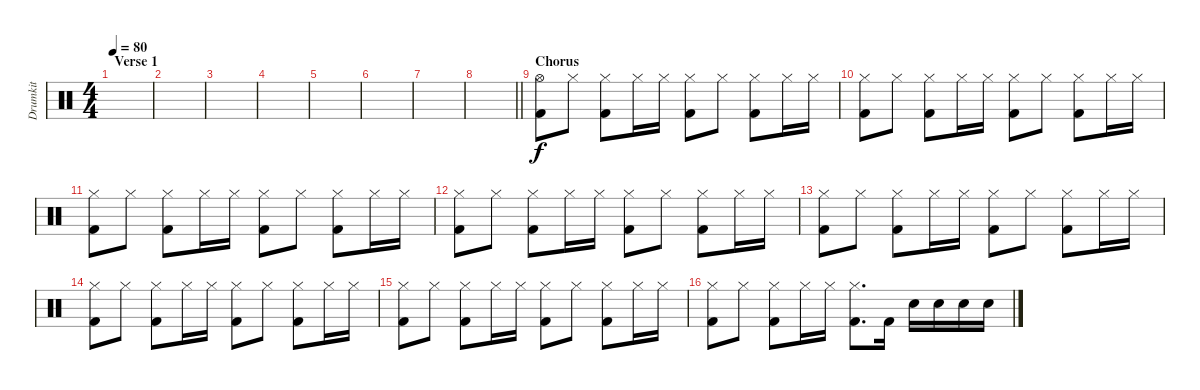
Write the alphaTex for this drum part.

\track ("Drumkit" "Drumkit") {instrument percussion}
\staff {score}
\articulation defaults
\ts (4 4)
\section ("" "Verse 1")
\tempo 80
\clef neutral
\ks c
|
|
|
|
|
|
|
\barLineRight lightlight
|
\section ("" "Chorus")
("Kick (hit) 2" "Hi-Hat (open)").8 "Hi-Hat (closed)".8 ("Kick (hit) 2" "Hi-Hat (closed)").8 "Hi-Hat (closed)".16 "Hi-Hat (closed)".16 ("Kick (hit) 2" "Hi-Hat (closed)").8 "Hi-Hat (closed)".8 ("Kick (hit) 2" "Hi-Hat (closed)").8 "Hi-Hat (closed)".16 "Hi-Hat (closed)".16 |
("Kick (hit) 2" "Hi-Hat (closed)").8 "Hi-Hat (closed)".8 ("Kick (hit) 2" "Hi-Hat (closed)").8 "Hi-Hat (closed)".16 "Hi-Hat (closed)".16 ("Kick (hit) 2" "Hi-Hat (closed)").8 "Hi-Hat (closed)".8 ("Kick (hit) 2" "Hi-Hat (closed)").8 "Hi-Hat (closed)".16 "Hi-Hat (closed)".16 |
("Kick (hit) 2" "Hi-Hat (closed)").8 "Hi-Hat (closed)".8 ("Kick (hit) 2" "Hi-Hat (closed)").8 "Hi-Hat (closed)".16 "Hi-Hat (closed)".16 ("Kick (hit) 2" "Hi-Hat (closed)").8 "Hi-Hat (closed)".8 ("Kick (hit) 2" "Hi-Hat (closed)").8 "Hi-Hat (closed)".16 "Hi-Hat (closed)".16 |
("Kick (hit) 2" "Hi-Hat (closed)").8 "Hi-Hat (closed)".8 ("Kick (hit) 2" "Hi-Hat (closed)").8 "Hi-Hat (closed)".16 "Hi-Hat (closed)".16 ("Kick (hit) 2" "Hi-Hat (closed)").8 "Hi-Hat (closed)".8 ("Kick (hit) 2" "Hi-Hat (closed)").8 "Hi-Hat (closed)".16 "Hi-Hat (closed)".16 |
("Kick (hit) 2" "Hi-Hat (closed)").8 "Hi-Hat (closed)".8 ("Kick (hit) 2" "Hi-Hat (closed)").8 "Hi-Hat (closed)".16 "Hi-Hat (closed)".16 ("Kick (hit) 2" "Hi-Hat (closed)").8 "Hi-Hat (closed)".8 ("Kick (hit) 2" "Hi-Hat (closed)").8 "Hi-Hat (closed)".16 "Hi-Hat (closed)".16 |
("Kick (hit) 2" "Hi-Hat (closed)").8 "Hi-Hat (closed)".8 ("Kick (hit) 2" "Hi-Hat (closed)").8 "Hi-Hat (closed)".16 "Hi-Hat (closed)".16 ("Kick (hit) 2" "Hi-Hat (closed)").8 "Hi-Hat (closed)".8 ("Kick (hit) 2" "Hi-Hat (closed)").8 "Hi-Hat (closed)".16 "Hi-Hat (closed)".16 |
("Kick (hit) 2" "Hi-Hat (closed)").8 "Hi-Hat (closed)".8 ("Kick (hit) 2" "Hi-Hat (closed)").8 "Hi-Hat (closed)".16 "Hi-Hat (closed)".16 ("Kick (hit) 2" "Hi-Hat (closed)").8 "Hi-Hat (closed)".8 ("Kick (hit) 2" "Hi-Hat (closed)").8 "Hi-Hat (closed)".16 "Hi-Hat (closed)".16 |
("Kick (hit) 2" "Hi-Hat (closed)").8 "Hi-Hat (closed)".8 ("Kick (hit) 2" "Hi-Hat (closed)").8 "Hi-Hat (closed)".16 "Hi-Hat (closed)".16 ("Kick (hit) 2" "Hi-Hat (closed)").8{d} "Kick (hit) 2".16 "Snare (hit) 2".16 "Snare (hit) 2".16 "Snare (hit) 2".16 "Snare (hit) 2".16
